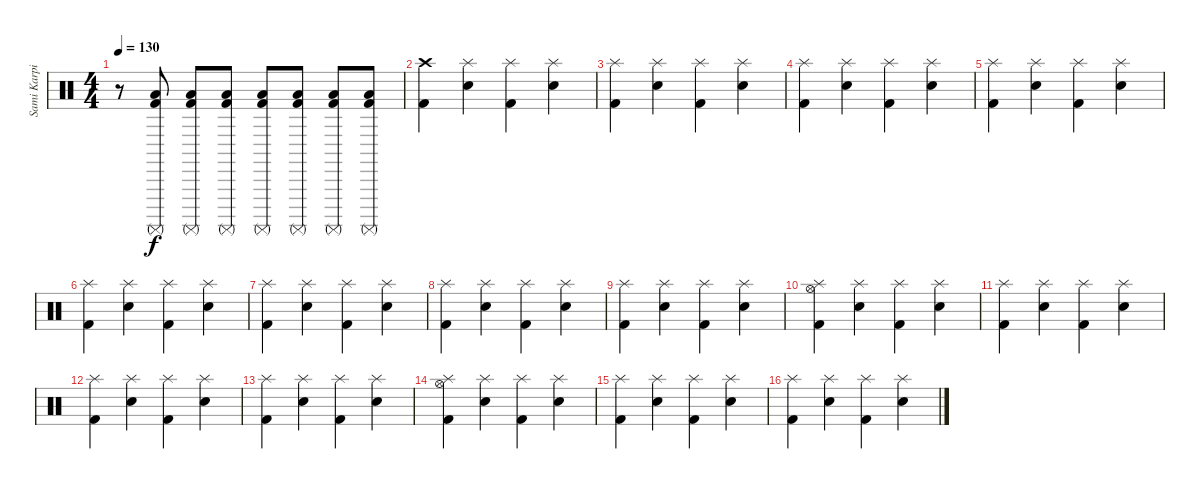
\track ("Sami Karpinnen" "Sami Karpi") {instrument percussion}
\staff {score}
\articulation defaults
\ts (4 4)
\tempo 130
\clef neutral
\ks c
r.8{dy f} ("Surdo (mute)" "Low Floor Tom (hit)" "Kick (hit) 2").8 ("Surdo (mute)" "Low Floor Tom (hit)" "Kick (hit) 2").8 ("Surdo (mute)" "Low Floor Tom (hit)" "Kick (hit) 2").8 ("Surdo (mute)" "Low Floor Tom (hit)" "Kick (hit) 2").8 ("Surdo (mute)" "Low Floor Tom (hit)" "Kick (hit) 2").8 ("Surdo (mute)" "Low Floor Tom (hit)" "Kick (hit) 2").8 ("Surdo (mute)" "Low Floor Tom (hit)" "Kick (hit) 2").8 |
("Crash high (hit)" "Kick (hit) 2").4 ("Splash (hit)" "Electric Snare (hit)").4 ("Splash (hit)" "Kick (hit) 2").4 ("Splash (hit)" "Electric Snare (hit)").4 |
("Splash (hit)" "Kick (hit) 2").4 ("Splash (hit)" "Electric Snare (hit)").4 ("Splash (hit)" "Kick (hit) 2").4 ("Splash (hit)" "Electric Snare (hit)").4 |
("Splash (hit)" "Kick (hit) 2").4 ("Splash (hit)" "Electric Snare (hit)").4 ("Splash (hit)" "Kick (hit) 2").4 ("Splash (hit)" "Electric Snare (hit)").4 |
("Splash (hit)" "Kick (hit) 2").4 ("Splash (hit)" "Electric Snare (hit)").4 ("Splash (hit)" "Kick (hit) 2").4 ("Splash (hit)" "Electric Snare (hit)").4 |
("Splash (hit)" "Kick (hit) 2").4 ("Splash (hit)" "Electric Snare (hit)").4 ("Splash (hit)" "Kick (hit) 2").4 ("Splash (hit)" "Electric Snare (hit)").4 |
("Splash (hit)" "Kick (hit) 2").4 ("Splash (hit)" "Electric Snare (hit)").4 ("Splash (hit)" "Kick (hit) 2").4 ("Splash (hit)" "Electric Snare (hit)").4 |
("Splash (hit)" "Kick (hit) 2").4 ("Splash (hit)" "Electric Snare (hit)").4 ("Splash (hit)" "Kick (hit) 2").4 ("Splash (hit)" "Electric Snare (hit)").4 |
("Splash (hit)" "Kick (hit) 2").4 ("Splash (hit)" "Electric Snare (hit)").4 ("Splash (hit)" "Kick (hit) 2").4 ("Splash (hit)" "Electric Snare (hit)").4 |
("Hi-Hat (open)" "Splash (hit)" "Kick (hit) 2").4 ("Splash (hit)" "Electric Snare (hit)").4 ("Splash (hit)" "Kick (hit) 2").4 ("Splash (hit)" "Electric Snare (hit)").4 |
("Splash (hit)" "Kick (hit) 2").4 ("Splash (hit)" "Electric Snare (hit)").4 ("Splash (hit)" "Kick (hit) 2").4 ("Splash (hit)" "Electric Snare (hit)").4 |
("Splash (hit)" "Kick (hit) 2").4 ("Splash (hit)" "Electric Snare (hit)").4 ("Splash (hit)" "Kick (hit) 2").4 ("Splash (hit)" "Electric Snare (hit)").4 |
("Splash (hit)" "Kick (hit) 2").4 ("Splash (hit)" "Electric Snare (hit)").4 ("Splash (hit)" "Kick (hit) 2").4 ("Splash (hit)" "Electric Snare (hit)").4 |
("Hi-Hat (open)" "Splash (hit)" "Kick (hit) 2").4 ("Splash (hit)" "Electric Snare (hit)").4 ("Splash (hit)" "Kick (hit) 2").4 ("Splash (hit)" "Electric Snare (hit)").4 |
("Splash (hit)" "Kick (hit) 2").4 ("Splash (hit)" "Electric Snare (hit)").4 ("Splash (hit)" "Kick (hit) 2").4 ("Splash (hit)" "Electric Snare (hit)").4 |
("Splash (hit)" "Kick (hit) 2").4 ("Splash (hit)" "Electric Snare (hit)").4 ("Splash (hit)" "Kick (hit) 2").4 ("Splash (hit)" "Electric Snare (hit)").4
